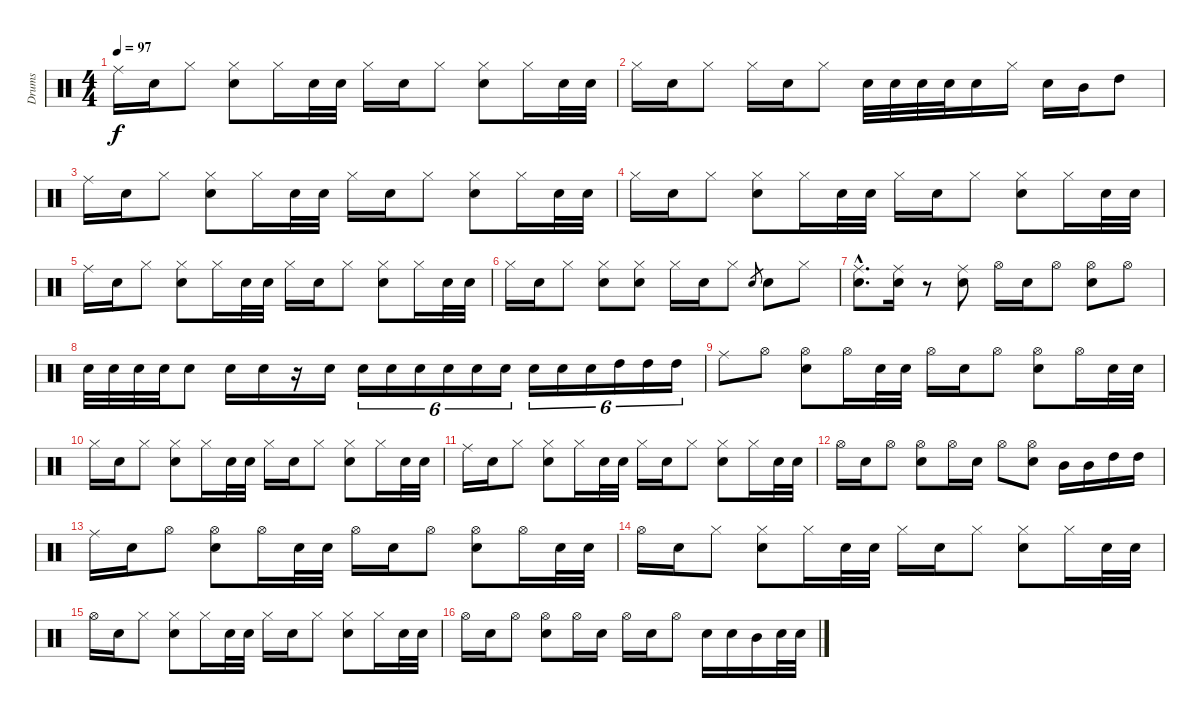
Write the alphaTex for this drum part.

\track ("Drums" "Drums") {instrument percussion}
\staff {score}
\articulation defaults
\ts (4 4)
\tempo 97
\clef neutral
\ks c "Ride (middle)".16{dy f} "Snare (hit) 2".16 "Hi-Hat (closed)".8
("Hi-Hat (closed)" "Snare (hit) 2").8 "Hi-Hat (closed)".16 "Snare (hit) 2".32 "Snare (hit) 2".32 "Hi-Hat (closed)".16 "Snare (hit) 2".16 "Hi-Hat (closed)".8 ("Hi-Hat (closed)" "Snare (hit) 2").8 "Hi-Hat (closed)".16 "Snare (hit) 2".32 "Snare (hit) 2".32 |
"Hi-Hat (closed)".16 "Snare (hit) 2".16 "Hi-Hat (closed)".8 "Hi-Hat (closed)".16 "Snare (hit) 2".16 "Hi-Hat (closed)".8 "Snare (hit) 2".32 "Snare (hit) 2".32 "Snare (hit) 2".32 "Snare (hit) 2".32 "Snare (hit) 2".16 "Hi-Hat (closed)".16 "Snare (hit) 2".16 "Mid Tom (hit)".16 "High Tom (hit)".8 |
"Ride (middle)".16 "Snare (hit) 2".16 "Hi-Hat (closed)".8 ("Hi-Hat (closed)" "Snare (hit) 2").8 "Hi-Hat (closed)".16 "Snare (hit) 2".32 "Snare (hit) 2".32 "Hi-Hat (closed)".16 "Snare (hit) 2".16 "Hi-Hat (closed)".8 ("Hi-Hat (closed)" "Snare (hit) 2").8 "Hi-Hat (closed)".16 "Snare (hit) 2".32 "Snare (hit) 2".32 |
"Hi-Hat (closed)".16 "Snare (hit) 2".16 "Hi-Hat (closed)".8 ("Hi-Hat (closed)" "Snare (hit) 2").8 "Hi-Hat (closed)".16 "Snare (hit) 2".32 "Snare (hit) 2".32 "Hi-Hat (closed)".16 "Snare (hit) 2".16 "Hi-Hat (closed)".8 ("Hi-Hat (closed)" "Snare (hit) 2").8 "Hi-Hat (closed)".16 "Snare (hit) 2".32 "Snare (hit) 2".32 |
"Ride (middle)".16 "Snare (hit) 2".16 "Hi-Hat (closed)".8 ("Hi-Hat (closed)" "Snare (hit) 2").8 "Hi-Hat (closed)".16 "Snare (hit) 2".32 "Snare (hit) 2".32 "Hi-Hat (closed)".16 "Snare (hit) 2".16 "Hi-Hat (closed)".8 ("Hi-Hat (closed)" "Snare (hit) 2").8 "Hi-Hat (closed)".16 "Snare (hit) 2".32 "Snare (hit) 2".32 |
"Hi-Hat (closed)".16 "Snare (hit) 2".16 "Hi-Hat (closed)".8 ("Hi-Hat (closed)" "Snare (hit) 2").8 ("Hi-Hat (closed)" "Snare (hit) 2").8 "Hi-Hat (closed)".16 "Snare (hit) 2".16 "Hi-Hat (closed)".8 "Snare (hit) 2".8{gr} "Snare (hit) 2".8 "Hi-Hat (closed)".8 |
("Ride (middle)"{hac} "Snare (hit) 2"{hac}).8{d} ("Ride (middle)" "Snare (hit) 2").16 r.8 ("Ride (middle)" "Snare (hit) 2").8 "Hi-Hat (open)".16 "Snare (hit) 2".16 "Hi-Hat (open)".8 ("Hi-Hat (open)" "Snare (hit) 2").8 "Hi-Hat (open)".8 |
"Snare (hit) 2".32 "Snare (hit) 2".32 "Snare (hit) 2".32 "Snare (hit) 2".32 "Snare (hit) 2".8 "Snare (hit) 2".16 "Snare (hit) 2".16 r.16 "Snare (hit) 2".16 "Snare (hit) 2".16{tu (6 4)} "Snare (hit) 2".16{tu (6 4)} "Snare (hit) 2".16{tu (6 4)} "Snare (hit) 2".16{tu (6 4)} "Snare (hit) 2".16{tu (6 4)} "Snare (hit) 2".16{tu (6 4)} "Snare (hit) 2".16{tu (6 4)} "Snare (hit) 2".16{tu (6 4)} "Snare (hit) 2".16{tu (6 4)} "High Tom (hit)".16{tu (6 4)} "High Tom (hit)".16{tu (6 4)} "High Tom (hit)".16{tu (6 4)} |
"Ride (middle)".8 "Hi-Hat (open)".8 ("Hi-Hat (open)" "Snare (hit) 2").8 "Hi-Hat (open)".16 "Snare (hit) 2".32 "Snare (hit) 2".32 "Hi-Hat (open)".16 "Snare (hit) 2".16 "Hi-Hat (open)".8 ("Hi-Hat (open)" "Snare (hit) 2").8 "Hi-Hat (open)".16 "Snare (hit) 2".32 "Snare (hit) 2".32 |
"Hi-Hat (closed)".16 "Snare (hit) 2".16 "Hi-Hat (closed)".8 ("Hi-Hat (closed)" "Snare (hit) 2").8 "Hi-Hat (closed)".16 "Snare (hit) 2".32 "Snare (hit) 2".32 "Hi-Hat (closed)".16 "Snare (hit) 2".16 "Hi-Hat (closed)".8 ("Hi-Hat (closed)" "Snare (hit) 2").8 "Hi-Hat (closed)".16 "Snare (hit) 2".32 "Snare (hit) 2".32 |
"Ride (middle)".16 "Snare (hit) 2".16 "Hi-Hat (closed)".8 ("Hi-Hat (closed)" "Snare (hit) 2").8 "Hi-Hat (closed)".16 "Snare (hit) 2".32 "Snare (hit) 2".32 "Hi-Hat (closed)".16 "Snare (hit) 2".16 "Hi-Hat (closed)".8 ("Hi-Hat (closed)" "Snare (hit) 2").8 "Hi-Hat (closed)".16 "Snare (hit) 2".32 "Snare (hit) 2".32 |
"Hi-Hat (open)".16 "Snare (hit) 2".16 "Hi-Hat (open)".8 ("Hi-Hat (open)" "Snare (hit) 2").8 "Hi-Hat (open)".16 "Snare (hit) 2".16 "Hi-Hat (open)".8 ("Hi-Hat (open)" "Snare (hit) 2").8 "Mid Tom (hit)".16 "Mid Tom (hit)".16 "High Tom (hit)".16 "High Tom (hit)".16 |
"Ride (middle)".16 "Snare (hit) 2".16 "Hi-Hat (open)".8 ("Hi-Hat (open)" "Snare (hit) 2").8 "Hi-Hat (open)".16 "Snare (hit) 2".32 "Snare (hit) 2".32 "Hi-Hat (open)".16 "Snare (hit) 2".16 "Hi-Hat (open)".8 ("Hi-Hat (open)" "Snare (hit) 2").8 "Hi-Hat (open)".16 "Snare (hit) 2".32 "Snare (hit) 2".32 |
"Hi-Hat (open)".16 "Snare (hit) 2".16 "Hi-Hat (closed)".8 ("Hi-Hat (closed)" "Snare (hit) 2").8 "Hi-Hat (closed)".16 "Snare (hit) 2".32 "Snare (hit) 2".32 "Hi-Hat (closed)".16 "Snare (hit) 2".16 "Hi-Hat (closed)".8 ("Hi-Hat (closed)" "Snare (hit) 2").8 "Hi-Hat (closed)".16 "Snare (hit) 2".32 "Snare (hit) 2".32 |
"Hi-Hat (open)".16 "Snare (hit) 2".16 "Hi-Hat (closed)".8 ("Hi-Hat (closed)" "Snare (hit) 2").8 "Hi-Hat (closed)".16 "Snare (hit) 2".32 "Snare (hit) 2".32 "Hi-Hat (closed)".16 "Snare (hit) 2".16 "Hi-Hat (closed)".8 ("Hi-Hat (closed)" "Snare (hit) 2").8 "Hi-Hat (closed)".16 "Snare (hit) 2".32 "Snare (hit) 2".32 |
"Hi-Hat (open)".16 "Snare (hit) 2".16 "Hi-Hat (open)".8 ("Hi-Hat (open)" "Snare (hit) 2").8 "Hi-Hat (open)".16 "Snare (hit) 2".16 "Hi-Hat (open)".16 "Snare (hit) 2".16 "Hi-Hat (open)".8 "Snare (hit) 2".16 "Snare (hit) 2".16 "Mid Tom (hit)".16 "Snare (hit) 2".32 "Snare (hit) 2".32
